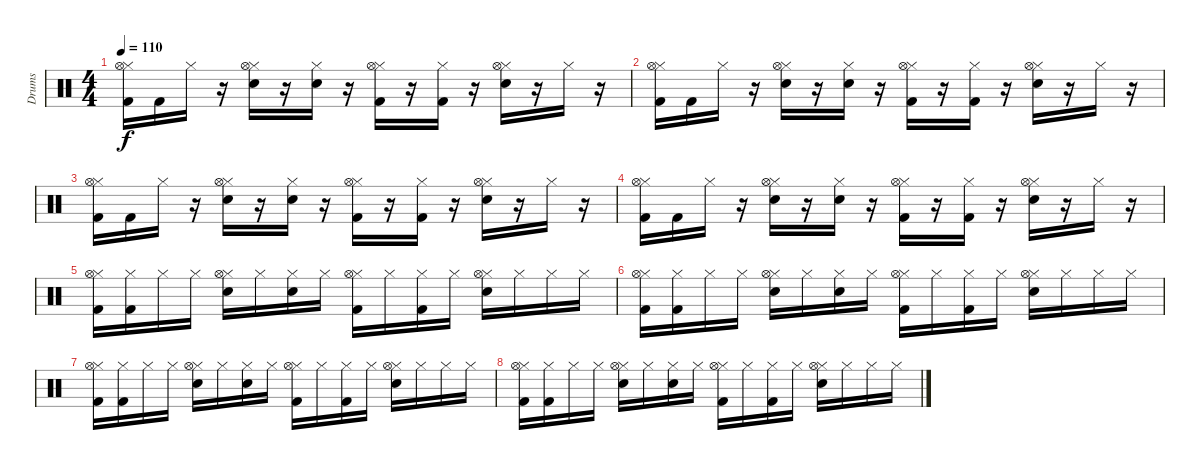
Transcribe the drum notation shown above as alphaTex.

\track ("Drums" "Drums") {instrument percussion}
\staff {score}
\articulation defaults
\ts (4 4)
\tempo 110
\clef neutral
\ks c
("Hi-Hat (closed)" "Hi-Hat (open)" "Kick (hit) 2").16{dy f} "Kick (hit) 2".16 "Hi-Hat (closed)".16 r.16 ("Hi-Hat (closed)" "Hi-Hat (open)" "Snare (hit) 2").16 r.16 ("Hi-Hat (closed)" "Snare (hit) 2").16 r.16 ("Hi-Hat (closed)" "Hi-Hat (open)" "Kick (hit) 2").16 r.16 ("Hi-Hat (closed)" "Kick (hit) 2").16 r.16 ("Hi-Hat (closed)" "Hi-Hat (open)" "Snare (hit) 2").16 r.16 "Hi-Hat (closed)".16 r.16 |
("Hi-Hat (closed)" "Hi-Hat (open)" "Kick (hit) 2").16 "Kick (hit) 2".16 "Hi-Hat (closed)".16 r.16 ("Hi-Hat (closed)" "Hi-Hat (open)" "Snare (hit) 2").16 r.16 ("Hi-Hat (closed)" "Snare (hit) 2").16 r.16 ("Hi-Hat (closed)" "Hi-Hat (open)" "Kick (hit) 2").16 r.16 ("Hi-Hat (closed)" "Kick (hit) 2").16 r.16 ("Hi-Hat (closed)" "Hi-Hat (open)" "Snare (hit) 2").16 r.16 "Hi-Hat (closed)".16 r.16 |
("Hi-Hat (closed)" "Hi-Hat (open)" "Kick (hit) 2").16 "Kick (hit) 2".16 "Hi-Hat (closed)".16 r.16 ("Hi-Hat (closed)" "Hi-Hat (open)" "Snare (hit) 2").16 r.16 ("Hi-Hat (closed)" "Snare (hit) 2").16 r.16 ("Hi-Hat (closed)" "Hi-Hat (open)" "Kick (hit) 2").16 r.16 ("Hi-Hat (closed)" "Kick (hit) 2").16 r.16 ("Hi-Hat (closed)" "Hi-Hat (open)" "Snare (hit) 2").16 r.16 "Hi-Hat (closed)".16 r.16 |
("Hi-Hat (closed)" "Hi-Hat (open)" "Kick (hit) 2").16 "Kick (hit) 2".16 "Hi-Hat (closed)".16 r.16 ("Hi-Hat (closed)" "Hi-Hat (open)" "Snare (hit) 2").16 r.16 ("Hi-Hat (closed)" "Snare (hit) 2").16 r.16 ("Hi-Hat (closed)" "Hi-Hat (open)" "Kick (hit) 2").16 r.16 ("Hi-Hat (closed)" "Kick (hit) 2").16 r.16 ("Hi-Hat (closed)" "Hi-Hat (open)" "Snare (hit) 2").16 r.16 "Hi-Hat (closed)".16 r.16 |
("Hi-Hat (closed)" "Hi-Hat (open)" "Kick (hit) 2").16 ("Hi-Hat (closed)" "Kick (hit) 2").16 "Hi-Hat (closed)".16 "Hi-Hat (closed)".16 ("Hi-Hat (closed)" "Hi-Hat (open)" "Snare (hit) 2").16 "Hi-Hat (closed)".16 ("Hi-Hat (closed)" "Snare (hit) 2").16 "Hi-Hat (closed)".16 ("Hi-Hat (closed)" "Hi-Hat (open)" "Kick (hit) 2").16 "Hi-Hat (closed)".16 ("Hi-Hat (closed)" "Kick (hit) 2").16 "Hi-Hat (closed)".16 ("Hi-Hat (closed)" "Hi-Hat (open)" "Snare (hit) 2").16 "Hi-Hat (closed)".16 "Hi-Hat (closed)".16 "Hi-Hat (closed)".16 |
("Hi-Hat (closed)" "Hi-Hat (open)" "Kick (hit) 2").16 ("Hi-Hat (closed)" "Kick (hit) 2").16 "Hi-Hat (closed)".16 "Hi-Hat (closed)".16 ("Hi-Hat (closed)" "Hi-Hat (open)" "Snare (hit) 2").16 "Hi-Hat (closed)".16 ("Hi-Hat (closed)" "Snare (hit) 2").16 "Hi-Hat (closed)".16 ("Hi-Hat (closed)" "Hi-Hat (open)" "Kick (hit) 2").16 "Hi-Hat (closed)".16 ("Hi-Hat (closed)" "Kick (hit) 2").16 "Hi-Hat (closed)".16 ("Hi-Hat (closed)" "Hi-Hat (open)" "Snare (hit) 2").16 "Hi-Hat (closed)".16 "Hi-Hat (closed)".16 "Hi-Hat (closed)".16 |
("Hi-Hat (closed)" "Hi-Hat (open)" "Kick (hit) 2").16 ("Hi-Hat (closed)" "Kick (hit) 2").16 "Hi-Hat (closed)".16 "Hi-Hat (closed)".16 ("Hi-Hat (closed)" "Hi-Hat (open)" "Snare (hit) 2").16 "Hi-Hat (closed)".16 ("Hi-Hat (closed)" "Snare (hit) 2").16 "Hi-Hat (closed)".16 ("Hi-Hat (closed)" "Hi-Hat (open)" "Kick (hit) 2").16 "Hi-Hat (closed)".16 ("Hi-Hat (closed)" "Kick (hit) 2").16 "Hi-Hat (closed)".16 ("Hi-Hat (closed)" "Hi-Hat (open)" "Snare (hit) 2").16 "Hi-Hat (closed)".16 "Hi-Hat (closed)".16 "Hi-Hat (closed)".16 |
("Hi-Hat (closed)" "Hi-Hat (open)" "Kick (hit) 2").16 ("Hi-Hat (closed)" "Kick (hit) 2").16 "Hi-Hat (closed)".16 "Hi-Hat (closed)".16 ("Hi-Hat (closed)" "Hi-Hat (open)" "Snare (hit) 2").16 "Hi-Hat (closed)".16 ("Hi-Hat (closed)" "Snare (hit) 2").16 "Hi-Hat (closed)".16 ("Hi-Hat (closed)" "Hi-Hat (open)" "Kick (hit) 2").16 "Hi-Hat (closed)".16 ("Hi-Hat (closed)" "Kick (hit) 2").16 "Hi-Hat (closed)".16 ("Hi-Hat (closed)" "Hi-Hat (open)" "Snare (hit) 2").16 "Hi-Hat (closed)".16 "Hi-Hat (closed)".16 "Hi-Hat (closed)".16
